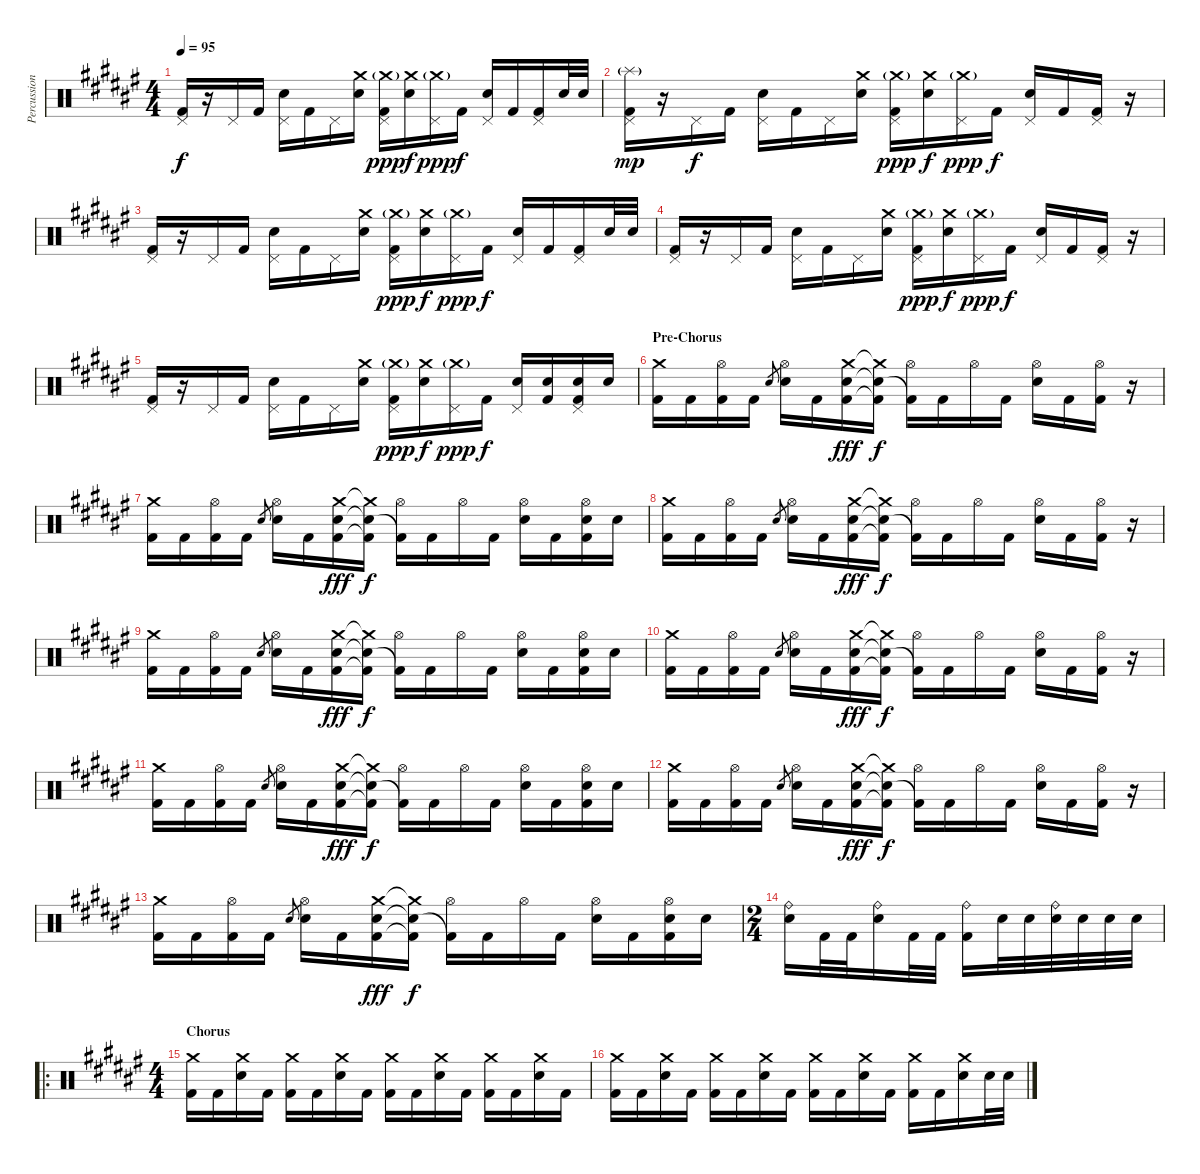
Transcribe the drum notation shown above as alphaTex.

\track ("Percussions" "Percussion") {instrument percussion}
\staff {score}
\articulation defaults
\ts (4 4)
\tempo 95
\clef neutral
\ks d#minor
("Pedal Hi-Hat (hit)" "Kick (hit) 2").16{dy f} r.16 "Pedal Hi-Hat (hit)".16 "Kick (hit) 2".16 ("Pedal Hi-Hat (hit)" "Electric Snare (hit)").16 "Kick (hit) 2".16 "Pedal Hi-Hat (hit)".16 ("Crash medium (hit)" "Electric Snare (hit)").16 ("Crash medium (hit)"{g} "Pedal Hi-Hat (hit)" "Kick (hit) 2").16{dy ppp} ("Crash medium (hit)" "Electric Snare (hit)").16{dy f} ("Crash medium (hit)"{g} "Pedal Hi-Hat (hit)").16{dy ppp} "Kick (hit) 2".16{dy f} ("Pedal Hi-Hat (hit)" "Electric Snare (hit)").16 "Kick (hit) 2".16 ("Pedal Hi-Hat (hit)" "Kick (hit) 2").16 "Electric Snare (hit)".32 "Electric Snare (hit)".32 |
("Pedal Hi-Hat (hit)" "Splash (hit)"{g} "Kick (hit) 2").16{dy mp} r.16 "Pedal Hi-Hat (hit)".16{dy f} "Kick (hit) 2".16 ("Pedal Hi-Hat (hit)" "Electric Snare (hit)").16 "Kick (hit) 2".16 "Pedal Hi-Hat (hit)".16 ("Crash medium (hit)" "Electric Snare (hit)").16 ("Crash medium (hit)"{g} "Pedal Hi-Hat (hit)" "Kick (hit) 2").16{dy ppp} ("Crash medium (hit)" "Electric Snare (hit)").16{dy f} ("Crash medium (hit)"{g} "Pedal Hi-Hat (hit)").16{dy ppp} "Kick (hit) 2".16{dy f} ("Pedal Hi-Hat (hit)" "Electric Snare (hit)").16 "Kick (hit) 2".16 ("Pedal Hi-Hat (hit)" "Kick (hit) 2").16 r.16 |
("Pedal Hi-Hat (hit)" "Kick (hit) 2").16 r.16 "Pedal Hi-Hat (hit)".16 "Kick (hit) 2".16 ("Pedal Hi-Hat (hit)" "Electric Snare (hit)").16 "Kick (hit) 2".16 "Pedal Hi-Hat (hit)".16 ("Crash medium (hit)" "Electric Snare (hit)").16 ("Crash medium (hit)"{g} "Pedal Hi-Hat (hit)" "Kick (hit) 2").16{dy ppp} ("Crash medium (hit)" "Electric Snare (hit)").16{dy f} ("Crash medium (hit)"{g} "Pedal Hi-Hat (hit)").16{dy ppp} "Kick (hit) 2".16{dy f} ("Pedal Hi-Hat (hit)" "Electric Snare (hit)").16 "Kick (hit) 2".16 ("Pedal Hi-Hat (hit)" "Kick (hit) 2").16 "Electric Snare (hit)".32 "Electric Snare (hit)".32 |
("Pedal Hi-Hat (hit)" "Kick (hit) 2").16 r.16 "Pedal Hi-Hat (hit)".16 "Kick (hit) 2".16 ("Pedal Hi-Hat (hit)" "Electric Snare (hit)").16 "Kick (hit) 2".16 "Pedal Hi-Hat (hit)".16 ("Crash medium (hit)" "Electric Snare (hit)").16 ("Crash medium (hit)"{g} "Pedal Hi-Hat (hit)" "Kick (hit) 2").16{dy ppp} ("Crash medium (hit)" "Electric Snare (hit)").16{dy f} ("Crash medium (hit)"{g} "Pedal Hi-Hat (hit)").16{dy ppp} "Kick (hit) 2".16{dy f} ("Pedal Hi-Hat (hit)" "Electric Snare (hit)").16 "Kick (hit) 2".16 ("Pedal Hi-Hat (hit)" "Kick (hit) 2").16 r.16 |
("Pedal Hi-Hat (hit)" "Kick (hit) 2").16 r.16 "Pedal Hi-Hat (hit)".16 "Kick (hit) 2".16 ("Pedal Hi-Hat (hit)" "Electric Snare (hit)").16 "Kick (hit) 2".16 "Pedal Hi-Hat (hit)".16 ("Crash medium (hit)" "Electric Snare (hit)").16 ("Crash medium (hit)"{g} "Pedal Hi-Hat (hit)" "Kick (hit) 2").16{dy ppp} ("Crash medium (hit)" "Electric Snare (hit)").16{dy f} ("Crash medium (hit)"{g} "Pedal Hi-Hat (hit)").16{dy ppp} "Kick (hit) 2".16{dy f} ("Pedal Hi-Hat (hit)" "Electric Snare (hit)").16 ("Electric Snare (hit)" "Kick (hit) 2").16 ("Pedal Hi-Hat (hit)" "Electric Snare (hit)" "Kick (hit) 2").16 "Electric Snare (hit)".16 |
\section ("" "Pre-Chorus")
("Crash medium (hit)" "Kick (hit) 2").16 "Kick (hit) 2".16 ("Hi-Hat (open)" "Kick (hit) 2").16 "Kick (hit) 2".16 "Electric Snare (hit)".8{gr} ("Hi-Hat (open)" "Electric Snare (hit)").16 "Kick (hit) 2".16 ("Crash medium (hit)" "Electric Snare (hit)" "Kick (hit) 2").16{dy fff} ("Crash medium (hit)"{t} "Electric Snare (hit)"{t} "Kick (hit) 2"{t}).16{dy f} ("Hi-Hat (open)" "Kick (hit) 2"{t}).16 "Kick (hit) 2".16 "Hi-Hat (open)".16 "Kick (hit) 2".16 ("Hi-Hat (open)" "Electric Snare (hit)").16 "Kick (hit) 2".16 ("Hi-Hat (open)" "Kick (hit) 2").16 r.16 |
("Crash medium (hit)" "Kick (hit) 2").16 "Kick (hit) 2".16 ("Hi-Hat (open)" "Kick (hit) 2").16 "Kick (hit) 2".16 "Electric Snare (hit)".8{gr} ("Hi-Hat (open)" "Electric Snare (hit)").16 "Kick (hit) 2".16 ("Crash medium (hit)" "Electric Snare (hit)" "Kick (hit) 2").16{dy fff} ("Crash medium (hit)"{t} "Electric Snare (hit)"{t} "Kick (hit) 2"{t}).16{dy f} ("Hi-Hat (open)" "Kick (hit) 2"{t}).16 "Kick (hit) 2".16 "Hi-Hat (open)".16 "Kick (hit) 2".16 ("Hi-Hat (open)" "Electric Snare (hit)").16 "Kick (hit) 2".16 ("Hi-Hat (open)" "Electric Snare (hit)" "Kick (hit) 2").16 "Electric Snare (hit)".16 |
("Crash medium (hit)" "Kick (hit) 2").16 "Kick (hit) 2".16 ("Hi-Hat (open)" "Kick (hit) 2").16 "Kick (hit) 2".16 "Electric Snare (hit)".8{gr} ("Hi-Hat (open)" "Electric Snare (hit)").16 "Kick (hit) 2".16 ("Crash medium (hit)" "Electric Snare (hit)" "Kick (hit) 2").16{dy fff} ("Crash medium (hit)"{t} "Electric Snare (hit)"{t} "Kick (hit) 2"{t}).16{dy f} ("Hi-Hat (open)" "Kick (hit) 2"{t}).16 "Kick (hit) 2".16 "Hi-Hat (open)".16 "Kick (hit) 2".16 ("Hi-Hat (open)" "Electric Snare (hit)").16 "Kick (hit) 2".16 ("Hi-Hat (open)" "Kick (hit) 2").16 r.16 |
("Crash medium (hit)" "Kick (hit) 2").16 "Kick (hit) 2".16 ("Hi-Hat (open)" "Kick (hit) 2").16 "Kick (hit) 2".16 "Electric Snare (hit)".8{gr} ("Hi-Hat (open)" "Electric Snare (hit)").16 "Kick (hit) 2".16 ("Crash medium (hit)" "Electric Snare (hit)" "Kick (hit) 2").16{dy fff} ("Crash medium (hit)"{t} "Electric Snare (hit)"{t} "Kick (hit) 2"{t}).16{dy f} ("Hi-Hat (open)" "Kick (hit) 2"{t}).16 "Kick (hit) 2".16 "Hi-Hat (open)".16 "Kick (hit) 2".16 ("Hi-Hat (open)" "Electric Snare (hit)").16 "Kick (hit) 2".16 ("Hi-Hat (open)" "Electric Snare (hit)" "Kick (hit) 2").16 "Electric Snare (hit)".16 |
("Crash medium (hit)" "Kick (hit) 2").16 "Kick (hit) 2".16 ("Hi-Hat (open)" "Kick (hit) 2").16 "Kick (hit) 2".16 "Electric Snare (hit)".8{gr} ("Hi-Hat (open)" "Electric Snare (hit)").16 "Kick (hit) 2".16 ("Crash medium (hit)" "Electric Snare (hit)" "Kick (hit) 2").16{dy fff} ("Crash medium (hit)"{t} "Electric Snare (hit)"{t} "Kick (hit) 2"{t}).16{dy f} ("Hi-Hat (open)" "Kick (hit) 2"{t}).16 "Kick (hit) 2".16 "Hi-Hat (open)".16 "Kick (hit) 2".16 ("Hi-Hat (open)" "Electric Snare (hit)").16 "Kick (hit) 2".16 ("Hi-Hat (open)" "Kick (hit) 2").16 r.16 |
("Crash medium (hit)" "Kick (hit) 2").16 "Kick (hit) 2".16 ("Hi-Hat (open)" "Kick (hit) 2").16 "Kick (hit) 2".16 "Electric Snare (hit)".8{gr} ("Hi-Hat (open)" "Electric Snare (hit)").16 "Kick (hit) 2".16 ("Crash medium (hit)" "Electric Snare (hit)" "Kick (hit) 2").16{dy fff} ("Crash medium (hit)"{t} "Electric Snare (hit)"{t} "Kick (hit) 2"{t}).16{dy f} ("Hi-Hat (open)" "Kick (hit) 2"{t}).16 "Kick (hit) 2".16 "Hi-Hat (open)".16 "Kick (hit) 2".16 ("Hi-Hat (open)" "Electric Snare (hit)").16 "Kick (hit) 2".16 ("Hi-Hat (open)" "Electric Snare (hit)" "Kick (hit) 2").16 "Electric Snare (hit)".16 |
("Crash medium (hit)" "Kick (hit) 2").16 "Kick (hit) 2".16 ("Hi-Hat (open)" "Kick (hit) 2").16 "Kick (hit) 2".16 "Electric Snare (hit)".8{gr} ("Hi-Hat (open)" "Electric Snare (hit)").16 "Kick (hit) 2".16 ("Crash medium (hit)" "Electric Snare (hit)" "Kick (hit) 2").16{dy fff} ("Crash medium (hit)"{t} "Electric Snare (hit)"{t} "Kick (hit) 2"{t}).16{dy f} ("Hi-Hat (open)" "Kick (hit) 2"{t}).16 "Kick (hit) 2".16 "Hi-Hat (open)".16 "Kick (hit) 2".16 ("Hi-Hat (open)" "Electric Snare (hit)").16 "Kick (hit) 2".16 ("Hi-Hat (open)" "Kick (hit) 2").16 r.16 |
("Crash medium (hit)" "Kick (hit) 2").16 "Kick (hit) 2".16 ("Hi-Hat (open)" "Kick (hit) 2").16 "Kick (hit) 2".16 "Electric Snare (hit)".8{gr} ("Hi-Hat (open)" "Electric Snare (hit)").16 "Kick (hit) 2".16 ("Crash medium (hit)" "Electric Snare (hit)" "Kick (hit) 2").16{dy fff} ("Crash medium (hit)"{t} "Electric Snare (hit)"{t} "Kick (hit) 2"{t}).16{dy f} ("Hi-Hat (open)" "Kick (hit) 2"{t}).16 "Kick (hit) 2".16 "Hi-Hat (open)".16 "Kick (hit) 2".16 ("Hi-Hat (open)" "Electric Snare (hit)").16 "Kick (hit) 2".16 ("Hi-Hat (open)" "Electric Snare (hit)" "Kick (hit) 2").16 "Electric Snare (hit)".16 |
\ts (2 4)
("Ride (bell)" "Electric Snare (hit)").16 "Kick (hit) 2".32 "Kick (hit) 2".32 ("Ride (bell)" "Electric Snare (hit)").16 "Kick (hit) 2".32 "Kick (hit) 2".32 ("Ride (bell)" "Kick (hit) 2").16 "Electric Snare (hit)".32 "Electric Snare (hit)".32 ("Ride (bell)" "Electric Snare (hit)").32 "Electric Snare (hit)".32 "Electric Snare (hit)".32 "Electric Snare (hit)".32 |
\ro
\ts (4 4)
\section ("" "Chorus")
("Crash medium (hit)" "Kick (hit) 2").16 "Kick (hit) 2".16 ("Crash medium (hit)" "Electric Snare (hit)").16 "Kick (hit) 2".16 ("Crash medium (hit)" "Kick (hit) 2").16 "Kick (hit) 2".16 ("Crash medium (hit)" "Electric Snare (hit)").16 "Kick (hit) 2".16 ("Crash medium (hit)" "Kick (hit) 2").16 "Kick (hit) 2".16 ("Crash medium (hit)" "Electric Snare (hit)").16 "Kick (hit) 2".16 ("Crash medium (hit)" "Kick (hit) 2").16 "Kick (hit) 2".16 ("Crash medium (hit)" "Electric Snare (hit)").16 "Kick (hit) 2".16 |
("Crash medium (hit)" "Kick (hit) 2").16 "Kick (hit) 2".16 ("Crash medium (hit)" "Electric Snare (hit)").16 "Kick (hit) 2".16 ("Crash medium (hit)" "Kick (hit) 2").16 "Kick (hit) 2".16 ("Crash medium (hit)" "Electric Snare (hit)").16 "Kick (hit) 2".16 ("Crash medium (hit)" "Kick (hit) 2").16 "Kick (hit) 2".16 ("Crash medium (hit)" "Electric Snare (hit)").16 "Kick (hit) 2".16 ("Crash medium (hit)" "Kick (hit) 2").16 "Kick (hit) 2".16 ("Crash medium (hit)" "Electric Snare (hit)").16 "Electric Snare (hit)".32 "Electric Snare (hit)".32
